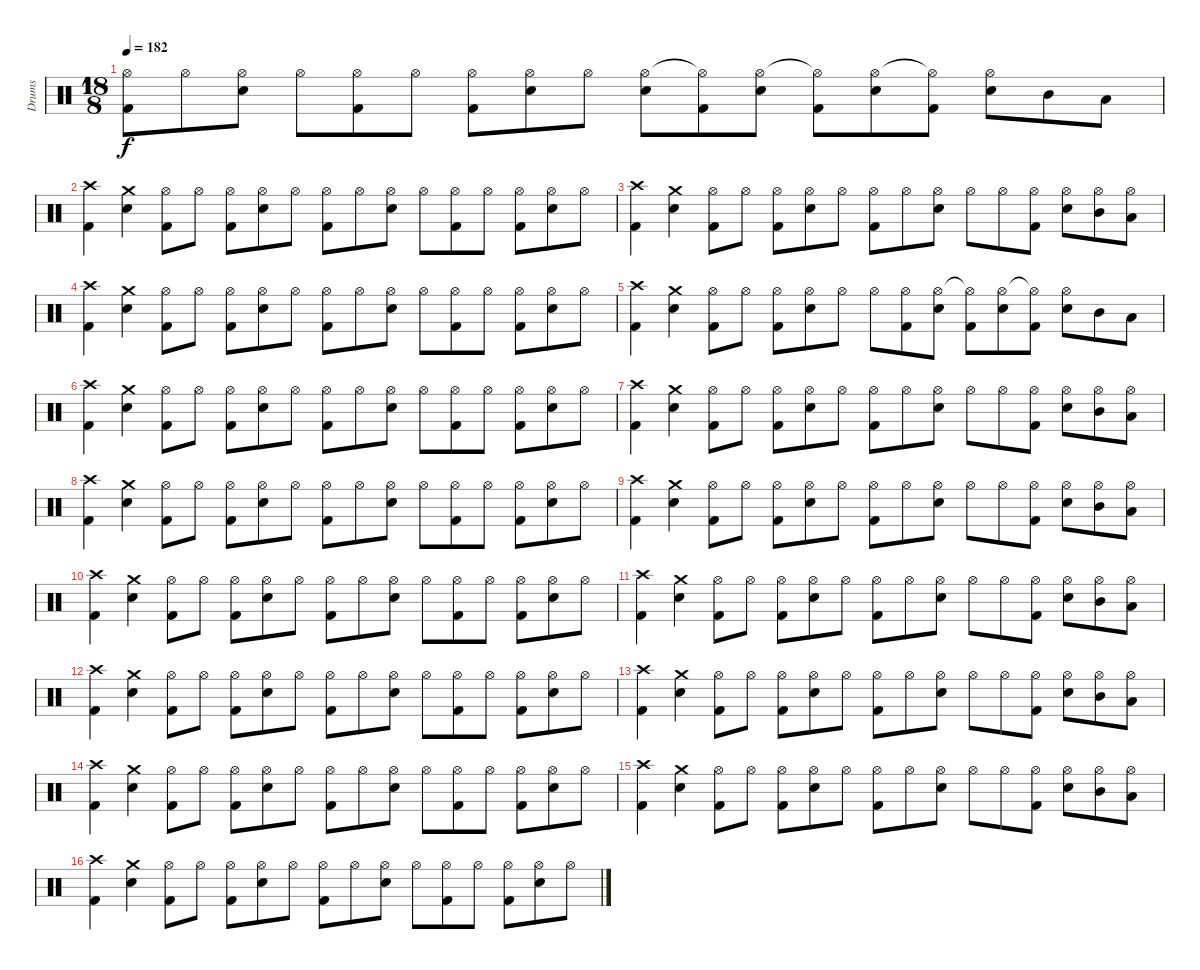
\track ("Drums" "Drums") {instrument percussion}
\staff {score}
\articulation defaults
\ts (18 8)
\tempo 182
\clef neutral
\ks c
("Hi-Hat (open)" "Kick (hit) 2").8{dy f} "Hi-Hat (open)".8 ("Hi-Hat (open)" "Snare (hit) 2").8 "Hi-Hat (open)".8 ("Hi-Hat (open)" "Kick (hit) 2").8 "Hi-Hat (open)".8 ("Hi-Hat (open)" "Kick (hit) 2").8 ("Hi-Hat (open)" "Snare (hit) 2").8 "Hi-Hat (open)".8 ("Hi-Hat (open)" "Snare (hit) 2").8 ("Hi-Hat (open)"{t} "Kick (hit) 2").8 ("Hi-Hat (open)" "Snare (hit) 2").8 ("Hi-Hat (open)"{t} "Kick (hit) 2").8 ("Hi-Hat (open)" "Snare (hit) 2").8 ("Hi-Hat (open)"{t} "Kick (hit) 2").8 ("Hi-Hat (open)" "Snare (hit) 2").8 "Mid Tom (hit)".8 "Low Tom (hit)".8 |
("Crash high (hit)" "Kick (hit) 2").4 ("Crash medium (hit)" "Snare (hit) 2").4 ("Hi-Hat (open)" "Kick (hit) 2").8 "Hi-Hat (open)".8 ("Hi-Hat (open)" "Kick (hit) 2").8 ("Hi-Hat (open)" "Snare (hit) 2").8 "Hi-Hat (open)".8 ("Hi-Hat (open)" "Kick (hit) 2").8 "Hi-Hat (open)".8 ("Hi-Hat (open)" "Snare (hit) 2").8 "Hi-Hat (open)".8 ("Hi-Hat (open)" "Kick (hit) 2").8 "Hi-Hat (open)".8 ("Hi-Hat (open)" "Kick (hit) 2").8 ("Hi-Hat (open)" "Snare (hit) 2").8 "Hi-Hat (open)".8 |
("Crash high (hit)" "Kick (hit) 2").4 ("Crash medium (hit)" "Snare (hit) 2").4 ("Hi-Hat (open)" "Kick (hit) 2").8 "Hi-Hat (open)".8 ("Hi-Hat (open)" "Kick (hit) 2").8 ("Hi-Hat (open)" "Snare (hit) 2").8 "Hi-Hat (open)".8 ("Hi-Hat (open)" "Kick (hit) 2").8 "Hi-Hat (open)".8 ("Hi-Hat (open)" "Snare (hit) 2").8 "Hi-Hat (open)".8 "Hi-Hat (open)".8 ("Hi-Hat (open)" "Kick (hit) 2").8 ("Hi-Hat (open)" "Snare (hit) 2").8 ("Hi-Hat (open)" "Mid Tom (hit)").8 ("Hi-Hat (open)" "Low Tom (hit)").8 |
("Crash high (hit)" "Kick (hit) 2").4 ("Crash medium (hit)" "Snare (hit) 2").4 ("Hi-Hat (open)" "Kick (hit) 2").8 "Hi-Hat (open)".8 ("Hi-Hat (open)" "Kick (hit) 2").8 ("Hi-Hat (open)" "Snare (hit) 2").8 "Hi-Hat (open)".8 ("Hi-Hat (open)" "Kick (hit) 2").8 "Hi-Hat (open)".8 ("Hi-Hat (open)" "Snare (hit) 2").8 "Hi-Hat (open)".8 ("Hi-Hat (open)" "Kick (hit) 2").8 "Hi-Hat (open)".8 ("Hi-Hat (open)" "Kick (hit) 2").8 ("Hi-Hat (open)" "Snare (hit) 2").8 "Hi-Hat (open)".8 |
("Crash high (hit)" "Kick (hit) 2").4 ("Crash medium (hit)" "Snare (hit) 2").4 ("Hi-Hat (open)" "Kick (hit) 2").8 "Hi-Hat (open)".8 ("Hi-Hat (open)" "Kick (hit) 2").8 ("Hi-Hat (open)" "Snare (hit) 2").8 "Hi-Hat (open)".8 "Hi-Hat (open)".8 ("Hi-Hat (open)" "Kick (hit) 2").8 ("Hi-Hat (open)" "Snare (hit) 2").8 ("Hi-Hat (open)"{t} "Kick (hit) 2").8 ("Hi-Hat (open)" "Snare (hit) 2").8 ("Hi-Hat (open)"{t} "Kick (hit) 2").8 ("Hi-Hat (open)" "Snare (hit) 2").8 "Mid Tom (hit)".8 "Low Tom (hit)".8 |
("Crash high (hit)" "Kick (hit) 2").4 ("Crash medium (hit)" "Snare (hit) 2").4 ("Hi-Hat (open)" "Kick (hit) 2").8 "Hi-Hat (open)".8 ("Hi-Hat (open)" "Kick (hit) 2").8 ("Hi-Hat (open)" "Snare (hit) 2").8 "Hi-Hat (open)".8 ("Hi-Hat (open)" "Kick (hit) 2").8 "Hi-Hat (open)".8 ("Hi-Hat (open)" "Snare (hit) 2").8 "Hi-Hat (open)".8 ("Hi-Hat (open)" "Kick (hit) 2").8 "Hi-Hat (open)".8 ("Hi-Hat (open)" "Kick (hit) 2").8 ("Hi-Hat (open)" "Snare (hit) 2").8 "Hi-Hat (open)".8 |
("Crash high (hit)" "Kick (hit) 2").4 ("Crash medium (hit)" "Snare (hit) 2").4 ("Hi-Hat (open)" "Kick (hit) 2").8 "Hi-Hat (open)".8 ("Hi-Hat (open)" "Kick (hit) 2").8 ("Hi-Hat (open)" "Snare (hit) 2").8 "Hi-Hat (open)".8 ("Hi-Hat (open)" "Kick (hit) 2").8 "Hi-Hat (open)".8 ("Hi-Hat (open)" "Snare (hit) 2").8 "Hi-Hat (open)".8 "Hi-Hat (open)".8 ("Hi-Hat (open)" "Kick (hit) 2").8 ("Hi-Hat (open)" "Snare (hit) 2").8 ("Hi-Hat (open)" "Mid Tom (hit)").8 ("Hi-Hat (open)" "Low Tom (hit)").8 |
("Crash high (hit)" "Kick (hit) 2").4 ("Crash medium (hit)" "Snare (hit) 2").4 ("Hi-Hat (open)" "Kick (hit) 2").8 "Hi-Hat (open)".8 ("Hi-Hat (open)" "Kick (hit) 2").8 ("Hi-Hat (open)" "Snare (hit) 2").8 "Hi-Hat (open)".8 ("Hi-Hat (open)" "Kick (hit) 2").8 "Hi-Hat (open)".8 ("Hi-Hat (open)" "Snare (hit) 2").8 "Hi-Hat (open)".8 ("Hi-Hat (open)" "Kick (hit) 2").8 "Hi-Hat (open)".8 ("Hi-Hat (open)" "Kick (hit) 2").8 ("Hi-Hat (open)" "Snare (hit) 2").8 "Hi-Hat (open)".8 |
("Crash high (hit)" "Kick (hit) 2").4 ("Crash medium (hit)" "Snare (hit) 2").4 ("Hi-Hat (open)" "Kick (hit) 2").8 "Hi-Hat (open)".8 ("Hi-Hat (open)" "Kick (hit) 2").8 ("Hi-Hat (open)" "Snare (hit) 2").8 "Hi-Hat (open)".8 ("Hi-Hat (open)" "Kick (hit) 2").8 "Hi-Hat (open)".8 ("Hi-Hat (open)" "Snare (hit) 2").8 "Hi-Hat (open)".8 "Hi-Hat (open)".8 ("Hi-Hat (open)" "Kick (hit) 2").8 ("Hi-Hat (open)" "Snare (hit) 2").8 ("Hi-Hat (open)" "Mid Tom (hit)").8 ("Hi-Hat (open)" "Low Tom (hit)").8 |
("Crash high (hit)" "Kick (hit) 2").4 ("Crash medium (hit)" "Snare (hit) 2").4 ("Hi-Hat (open)" "Kick (hit) 2").8 "Hi-Hat (open)".8 ("Hi-Hat (open)" "Kick (hit) 2").8 ("Hi-Hat (open)" "Snare (hit) 2").8 "Hi-Hat (open)".8 ("Hi-Hat (open)" "Kick (hit) 2").8 "Hi-Hat (open)".8 ("Hi-Hat (open)" "Snare (hit) 2").8 "Hi-Hat (open)".8 ("Hi-Hat (open)" "Kick (hit) 2").8 "Hi-Hat (open)".8 ("Hi-Hat (open)" "Kick (hit) 2").8 ("Hi-Hat (open)" "Snare (hit) 2").8 "Hi-Hat (open)".8 |
("Crash high (hit)" "Kick (hit) 2").4 ("Crash medium (hit)" "Snare (hit) 2").4 ("Hi-Hat (open)" "Kick (hit) 2").8 "Hi-Hat (open)".8 ("Hi-Hat (open)" "Kick (hit) 2").8 ("Hi-Hat (open)" "Snare (hit) 2").8 "Hi-Hat (open)".8 ("Hi-Hat (open)" "Kick (hit) 2").8 "Hi-Hat (open)".8 ("Hi-Hat (open)" "Snare (hit) 2").8 "Hi-Hat (open)".8 "Hi-Hat (open)".8 ("Hi-Hat (open)" "Kick (hit) 2").8 ("Hi-Hat (open)" "Snare (hit) 2").8 ("Hi-Hat (open)" "Mid Tom (hit)").8 ("Hi-Hat (open)" "Low Tom (hit)").8 |
("Crash high (hit)" "Kick (hit) 2").4 ("Crash medium (hit)" "Snare (hit) 2").4 ("Hi-Hat (open)" "Kick (hit) 2").8 "Hi-Hat (open)".8 ("Hi-Hat (open)" "Kick (hit) 2").8 ("Hi-Hat (open)" "Snare (hit) 2").8 "Hi-Hat (open)".8 ("Hi-Hat (open)" "Kick (hit) 2").8 "Hi-Hat (open)".8 ("Hi-Hat (open)" "Snare (hit) 2").8 "Hi-Hat (open)".8 ("Hi-Hat (open)" "Kick (hit) 2").8 "Hi-Hat (open)".8 ("Hi-Hat (open)" "Kick (hit) 2").8 ("Hi-Hat (open)" "Snare (hit) 2").8 "Hi-Hat (open)".8 |
("Crash high (hit)" "Kick (hit) 2").4 ("Crash medium (hit)" "Snare (hit) 2").4 ("Hi-Hat (open)" "Kick (hit) 2").8 "Hi-Hat (open)".8 ("Hi-Hat (open)" "Kick (hit) 2").8 ("Hi-Hat (open)" "Snare (hit) 2").8 "Hi-Hat (open)".8 ("Hi-Hat (open)" "Kick (hit) 2").8 "Hi-Hat (open)".8 ("Hi-Hat (open)" "Snare (hit) 2").8 "Hi-Hat (open)".8 "Hi-Hat (open)".8 ("Hi-Hat (open)" "Kick (hit) 2").8 ("Hi-Hat (open)" "Snare (hit) 2").8 ("Hi-Hat (open)" "Mid Tom (hit)").8 ("Hi-Hat (open)" "Low Tom (hit)").8 |
("Crash high (hit)" "Kick (hit) 2").4 ("Crash medium (hit)" "Snare (hit) 2").4 ("Hi-Hat (open)" "Kick (hit) 2").8 "Hi-Hat (open)".8 ("Hi-Hat (open)" "Kick (hit) 2").8 ("Hi-Hat (open)" "Snare (hit) 2").8 "Hi-Hat (open)".8 ("Hi-Hat (open)" "Kick (hit) 2").8 "Hi-Hat (open)".8 ("Hi-Hat (open)" "Snare (hit) 2").8 "Hi-Hat (open)".8 ("Hi-Hat (open)" "Kick (hit) 2").8 "Hi-Hat (open)".8 ("Hi-Hat (open)" "Kick (hit) 2").8 ("Hi-Hat (open)" "Snare (hit) 2").8 "Hi-Hat (open)".8 |
("Crash high (hit)" "Kick (hit) 2").4 ("Crash medium (hit)" "Snare (hit) 2").4 ("Hi-Hat (open)" "Kick (hit) 2").8 "Hi-Hat (open)".8 ("Hi-Hat (open)" "Kick (hit) 2").8 ("Hi-Hat (open)" "Snare (hit) 2").8 "Hi-Hat (open)".8 ("Hi-Hat (open)" "Kick (hit) 2").8 "Hi-Hat (open)".8 ("Hi-Hat (open)" "Snare (hit) 2").8 "Hi-Hat (open)".8 "Hi-Hat (open)".8 ("Hi-Hat (open)" "Kick (hit) 2").8 ("Hi-Hat (open)" "Snare (hit) 2").8 ("Hi-Hat (open)" "Mid Tom (hit)").8 ("Hi-Hat (open)" "Low Tom (hit)").8 |
("Crash high (hit)" "Kick (hit) 2").4 ("Crash medium (hit)" "Snare (hit) 2").4 ("Hi-Hat (open)" "Kick (hit) 2").8 "Hi-Hat (open)".8 ("Hi-Hat (open)" "Kick (hit) 2").8 ("Hi-Hat (open)" "Snare (hit) 2").8 "Hi-Hat (open)".8 ("Hi-Hat (open)" "Kick (hit) 2").8 "Hi-Hat (open)".8 ("Hi-Hat (open)" "Snare (hit) 2").8 "Hi-Hat (open)".8 ("Hi-Hat (open)" "Kick (hit) 2").8 "Hi-Hat (open)".8 ("Hi-Hat (open)" "Kick (hit) 2").8 ("Hi-Hat (open)" "Snare (hit) 2").8 "Hi-Hat (open)".8
